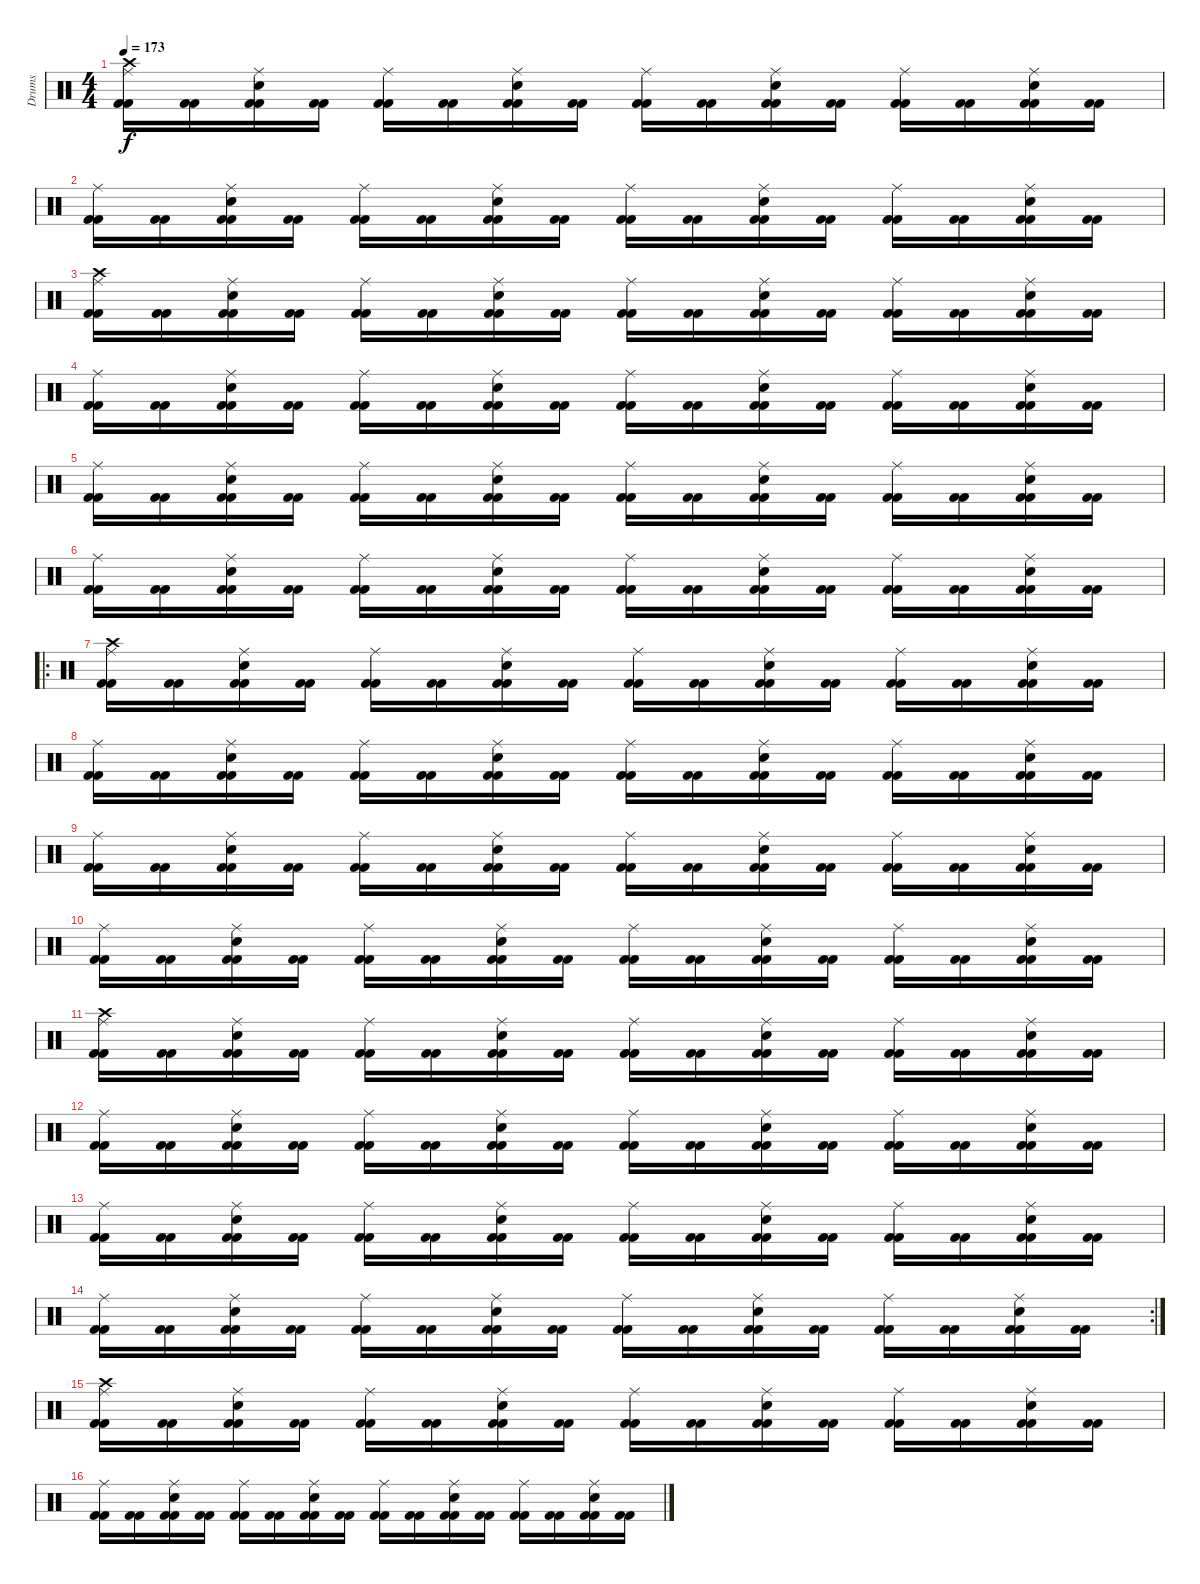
\track ("Drums" "Drums") {instrument percussion}
\staff {score}
\articulation defaults
\ts (4 4)
\tempo 173
\clef neutral
\ks c
("Kick (hit) 2" "Kick (hit) 2" "Ride (middle)" "Crash high (hit)").16{dy f} ("Kick (hit) 2" "Kick (hit) 2").16 ("Kick (hit) 2" "Kick (hit) 2" "Ride (middle)" "Electric Snare (hit)").16 ("Kick (hit) 2" "Kick (hit) 2").16 ("Kick (hit) 2" "Kick (hit) 2" "Ride (middle)").16 ("Kick (hit) 2" "Kick (hit) 2").16 ("Kick (hit) 2" "Kick (hit) 2" "Ride (middle)" "Electric Snare (hit)").16 ("Kick (hit) 2" "Kick (hit) 2").16 ("Kick (hit) 2" "Kick (hit) 2" "Ride (middle)").16 ("Kick (hit) 2" "Kick (hit) 2").16 ("Kick (hit) 2" "Kick (hit) 2" "Ride (middle)" "Electric Snare (hit)").16 ("Kick (hit) 2" "Kick (hit) 2").16 ("Kick (hit) 2" "Kick (hit) 2" "Ride (middle)").16 ("Kick (hit) 2" "Kick (hit) 2").16 ("Kick (hit) 2" "Kick (hit) 2" "Ride (middle)" "Electric Snare (hit)").16 ("Kick (hit) 2" "Kick (hit) 2").16 |
("Kick (hit) 2" "Kick (hit) 2" "Ride (middle)").16 ("Kick (hit) 2" "Kick (hit) 2").16 ("Kick (hit) 2" "Kick (hit) 2" "Ride (middle)" "Electric Snare (hit)").16 ("Kick (hit) 2" "Kick (hit) 2").16 ("Kick (hit) 2" "Kick (hit) 2" "Ride (middle)").16 ("Kick (hit) 2" "Kick (hit) 2").16 ("Kick (hit) 2" "Kick (hit) 2" "Ride (middle)" "Electric Snare (hit)").16 ("Kick (hit) 2" "Kick (hit) 2").16 ("Kick (hit) 2" "Kick (hit) 2" "Ride (middle)").16 ("Kick (hit) 2" "Kick (hit) 2").16 ("Kick (hit) 2" "Kick (hit) 2" "Ride (middle)" "Electric Snare (hit)").16 ("Kick (hit) 2" "Kick (hit) 2").16 ("Kick (hit) 2" "Kick (hit) 2" "Ride (middle)").16 ("Kick (hit) 2" "Kick (hit) 2").16 ("Kick (hit) 2" "Kick (hit) 2" "Ride (middle)" "Electric Snare (hit)").16 ("Kick (hit) 2" "Kick (hit) 2").16 |
("Kick (hit) 2" "Kick (hit) 2" "Ride (middle)" "Crash high (hit)").16 ("Kick (hit) 2" "Kick (hit) 2").16 ("Kick (hit) 2" "Kick (hit) 2" "Ride (middle)" "Electric Snare (hit)").16 ("Kick (hit) 2" "Kick (hit) 2").16 ("Kick (hit) 2" "Kick (hit) 2" "Ride (middle)").16 ("Kick (hit) 2" "Kick (hit) 2").16 ("Kick (hit) 2" "Kick (hit) 2" "Ride (middle)" "Electric Snare (hit)").16 ("Kick (hit) 2" "Kick (hit) 2").16 ("Kick (hit) 2" "Kick (hit) 2" "Ride (middle)").16 ("Kick (hit) 2" "Kick (hit) 2").16 ("Kick (hit) 2" "Kick (hit) 2" "Ride (middle)" "Electric Snare (hit)").16 ("Kick (hit) 2" "Kick (hit) 2").16 ("Kick (hit) 2" "Kick (hit) 2" "Ride (middle)").16 ("Kick (hit) 2" "Kick (hit) 2").16 ("Kick (hit) 2" "Kick (hit) 2" "Ride (middle)" "Electric Snare (hit)").16 ("Kick (hit) 2" "Kick (hit) 2").16 |
("Kick (hit) 2" "Kick (hit) 2" "Ride (middle)").16 ("Kick (hit) 2" "Kick (hit) 2").16 ("Kick (hit) 2" "Kick (hit) 2" "Ride (middle)" "Electric Snare (hit)").16 ("Kick (hit) 2" "Kick (hit) 2").16 ("Kick (hit) 2" "Kick (hit) 2" "Ride (middle)").16 ("Kick (hit) 2" "Kick (hit) 2").16 ("Kick (hit) 2" "Kick (hit) 2" "Ride (middle)" "Electric Snare (hit)").16 ("Kick (hit) 2" "Kick (hit) 2").16 ("Kick (hit) 2" "Kick (hit) 2" "Ride (middle)").16 ("Kick (hit) 2" "Kick (hit) 2").16 ("Kick (hit) 2" "Kick (hit) 2" "Ride (middle)" "Electric Snare (hit)").16 ("Kick (hit) 2" "Kick (hit) 2").16 ("Kick (hit) 2" "Kick (hit) 2" "Ride (middle)").16 ("Kick (hit) 2" "Kick (hit) 2").16 ("Kick (hit) 2" "Kick (hit) 2" "Ride (middle)" "Electric Snare (hit)").16 ("Kick (hit) 2" "Kick (hit) 2").16 |
("Kick (hit) 2" "Kick (hit) 2" "Ride (middle)").16 ("Kick (hit) 2" "Kick (hit) 2").16 ("Kick (hit) 2" "Kick (hit) 2" "Ride (middle)" "Electric Snare (hit)").16 ("Kick (hit) 2" "Kick (hit) 2").16 ("Kick (hit) 2" "Kick (hit) 2" "Ride (middle)").16 ("Kick (hit) 2" "Kick (hit) 2").16 ("Kick (hit) 2" "Kick (hit) 2" "Ride (middle)" "Electric Snare (hit)").16 ("Kick (hit) 2" "Kick (hit) 2").16 ("Kick (hit) 2" "Kick (hit) 2" "Ride (middle)").16 ("Kick (hit) 2" "Kick (hit) 2").16 ("Kick (hit) 2" "Kick (hit) 2" "Ride (middle)" "Electric Snare (hit)").16 ("Kick (hit) 2" "Kick (hit) 2").16 ("Kick (hit) 2" "Kick (hit) 2" "Ride (middle)").16 ("Kick (hit) 2" "Kick (hit) 2").16 ("Kick (hit) 2" "Kick (hit) 2" "Ride (middle)" "Electric Snare (hit)").16 ("Kick (hit) 2" "Kick (hit) 2").16 |
("Kick (hit) 2" "Kick (hit) 2" "Ride (middle)").16 ("Kick (hit) 2" "Kick (hit) 2").16 ("Kick (hit) 2" "Kick (hit) 2" "Ride (middle)" "Electric Snare (hit)").16 ("Kick (hit) 2" "Kick (hit) 2").16 ("Kick (hit) 2" "Kick (hit) 2" "Ride (middle)").16 ("Kick (hit) 2" "Kick (hit) 2").16 ("Kick (hit) 2" "Kick (hit) 2" "Ride (middle)" "Electric Snare (hit)").16 ("Kick (hit) 2" "Kick (hit) 2").16 ("Kick (hit) 2" "Kick (hit) 2" "Ride (middle)").16 ("Kick (hit) 2" "Kick (hit) 2").16 ("Kick (hit) 2" "Kick (hit) 2" "Ride (middle)" "Electric Snare (hit)").16 ("Kick (hit) 2" "Kick (hit) 2").16 ("Kick (hit) 2" "Kick (hit) 2" "Ride (middle)").16 ("Kick (hit) 2" "Kick (hit) 2").16 ("Kick (hit) 2" "Kick (hit) 2" "Ride (middle)" "Electric Snare (hit)").16 ("Kick (hit) 2" "Kick (hit) 2").16 |
\ro
("Kick (hit) 2" "Kick (hit) 2" "Ride (middle)" "Crash high (hit)").16 ("Kick (hit) 2" "Kick (hit) 2").16 ("Kick (hit) 2" "Kick (hit) 2" "Ride (middle)" "Electric Snare (hit)").16 ("Kick (hit) 2" "Kick (hit) 2").16 ("Kick (hit) 2" "Kick (hit) 2" "Ride (middle)").16 ("Kick (hit) 2" "Kick (hit) 2").16 ("Kick (hit) 2" "Kick (hit) 2" "Ride (middle)" "Electric Snare (hit)").16 ("Kick (hit) 2" "Kick (hit) 2").16 ("Kick (hit) 2" "Kick (hit) 2" "Ride (middle)").16 ("Kick (hit) 2" "Kick (hit) 2").16 ("Kick (hit) 2" "Kick (hit) 2" "Ride (middle)" "Electric Snare (hit)").16 ("Kick (hit) 2" "Kick (hit) 2").16 ("Kick (hit) 2" "Kick (hit) 2" "Ride (middle)").16 ("Kick (hit) 2" "Kick (hit) 2").16 ("Kick (hit) 2" "Kick (hit) 2" "Ride (middle)" "Electric Snare (hit)").16 ("Kick (hit) 2" "Kick (hit) 2").16 |
("Kick (hit) 2" "Kick (hit) 2" "Ride (middle)").16 ("Kick (hit) 2" "Kick (hit) 2").16 ("Kick (hit) 2" "Kick (hit) 2" "Ride (middle)" "Electric Snare (hit)").16 ("Kick (hit) 2" "Kick (hit) 2").16 ("Kick (hit) 2" "Kick (hit) 2" "Ride (middle)").16 ("Kick (hit) 2" "Kick (hit) 2").16 ("Kick (hit) 2" "Kick (hit) 2" "Ride (middle)" "Electric Snare (hit)").16 ("Kick (hit) 2" "Kick (hit) 2").16 ("Kick (hit) 2" "Kick (hit) 2" "Ride (middle)").16 ("Kick (hit) 2" "Kick (hit) 2").16 ("Kick (hit) 2" "Kick (hit) 2" "Ride (middle)" "Electric Snare (hit)").16 ("Kick (hit) 2" "Kick (hit) 2").16 ("Kick (hit) 2" "Kick (hit) 2" "Ride (middle)").16 ("Kick (hit) 2" "Kick (hit) 2").16 ("Kick (hit) 2" "Kick (hit) 2" "Ride (middle)" "Electric Snare (hit)").16 ("Kick (hit) 2" "Kick (hit) 2").16 |
("Kick (hit) 2" "Kick (hit) 2" "Ride (middle)").16 ("Kick (hit) 2" "Kick (hit) 2").16 ("Kick (hit) 2" "Kick (hit) 2" "Ride (middle)" "Electric Snare (hit)").16 ("Kick (hit) 2" "Kick (hit) 2").16 ("Kick (hit) 2" "Kick (hit) 2" "Ride (middle)").16 ("Kick (hit) 2" "Kick (hit) 2").16 ("Kick (hit) 2" "Kick (hit) 2" "Ride (middle)" "Electric Snare (hit)").16 ("Kick (hit) 2" "Kick (hit) 2").16 ("Kick (hit) 2" "Kick (hit) 2" "Ride (middle)").16 ("Kick (hit) 2" "Kick (hit) 2").16 ("Kick (hit) 2" "Kick (hit) 2" "Ride (middle)" "Electric Snare (hit)").16 ("Kick (hit) 2" "Kick (hit) 2").16 ("Kick (hit) 2" "Kick (hit) 2" "Ride (middle)").16 ("Kick (hit) 2" "Kick (hit) 2").16 ("Kick (hit) 2" "Kick (hit) 2" "Ride (middle)" "Electric Snare (hit)").16 ("Kick (hit) 2" "Kick (hit) 2").16 |
("Kick (hit) 2" "Kick (hit) 2" "Ride (middle)").16 ("Kick (hit) 2" "Kick (hit) 2").16 ("Kick (hit) 2" "Kick (hit) 2" "Ride (middle)" "Electric Snare (hit)").16 ("Kick (hit) 2" "Kick (hit) 2").16 ("Kick (hit) 2" "Kick (hit) 2" "Ride (middle)").16 ("Kick (hit) 2" "Kick (hit) 2").16 ("Kick (hit) 2" "Kick (hit) 2" "Ride (middle)" "Electric Snare (hit)").16 ("Kick (hit) 2" "Kick (hit) 2").16 ("Kick (hit) 2" "Kick (hit) 2" "Ride (middle)").16 ("Kick (hit) 2" "Kick (hit) 2").16 ("Kick (hit) 2" "Kick (hit) 2" "Ride (middle)" "Electric Snare (hit)").16 ("Kick (hit) 2" "Kick (hit) 2").16 ("Kick (hit) 2" "Kick (hit) 2" "Ride (middle)").16 ("Kick (hit) 2" "Kick (hit) 2").16 ("Kick (hit) 2" "Kick (hit) 2" "Ride (middle)" "Electric Snare (hit)").16 ("Kick (hit) 2" "Kick (hit) 2").16 |
("Kick (hit) 2" "Kick (hit) 2" "Ride (middle)" "Crash high (hit)").16 ("Kick (hit) 2" "Kick (hit) 2").16 ("Kick (hit) 2" "Kick (hit) 2" "Ride (middle)" "Electric Snare (hit)").16 ("Kick (hit) 2" "Kick (hit) 2").16 ("Kick (hit) 2" "Kick (hit) 2" "Ride (middle)").16 ("Kick (hit) 2" "Kick (hit) 2").16 ("Kick (hit) 2" "Kick (hit) 2" "Ride (middle)" "Electric Snare (hit)").16 ("Kick (hit) 2" "Kick (hit) 2").16 ("Kick (hit) 2" "Kick (hit) 2" "Ride (middle)").16 ("Kick (hit) 2" "Kick (hit) 2").16 ("Kick (hit) 2" "Kick (hit) 2" "Ride (middle)" "Electric Snare (hit)").16 ("Kick (hit) 2" "Kick (hit) 2").16 ("Kick (hit) 2" "Kick (hit) 2" "Ride (middle)").16 ("Kick (hit) 2" "Kick (hit) 2").16 ("Kick (hit) 2" "Kick (hit) 2" "Ride (middle)" "Electric Snare (hit)").16 ("Kick (hit) 2" "Kick (hit) 2").16 |
("Kick (hit) 2" "Kick (hit) 2" "Ride (middle)").16 ("Kick (hit) 2" "Kick (hit) 2").16 ("Kick (hit) 2" "Kick (hit) 2" "Ride (middle)" "Electric Snare (hit)").16 ("Kick (hit) 2" "Kick (hit) 2").16 ("Kick (hit) 2" "Kick (hit) 2" "Ride (middle)").16 ("Kick (hit) 2" "Kick (hit) 2").16 ("Kick (hit) 2" "Kick (hit) 2" "Ride (middle)" "Electric Snare (hit)").16 ("Kick (hit) 2" "Kick (hit) 2").16 ("Kick (hit) 2" "Kick (hit) 2" "Ride (middle)").16 ("Kick (hit) 2" "Kick (hit) 2").16 ("Kick (hit) 2" "Kick (hit) 2" "Ride (middle)" "Electric Snare (hit)").16 ("Kick (hit) 2" "Kick (hit) 2").16 ("Kick (hit) 2" "Kick (hit) 2" "Ride (middle)").16 ("Kick (hit) 2" "Kick (hit) 2").16 ("Kick (hit) 2" "Kick (hit) 2" "Ride (middle)" "Electric Snare (hit)").16 ("Kick (hit) 2" "Kick (hit) 2").16 |
("Kick (hit) 2" "Kick (hit) 2" "Ride (middle)").16 ("Kick (hit) 2" "Kick (hit) 2").16 ("Kick (hit) 2" "Kick (hit) 2" "Ride (middle)" "Electric Snare (hit)").16 ("Kick (hit) 2" "Kick (hit) 2").16 ("Kick (hit) 2" "Kick (hit) 2" "Ride (middle)").16 ("Kick (hit) 2" "Kick (hit) 2").16 ("Kick (hit) 2" "Kick (hit) 2" "Ride (middle)" "Electric Snare (hit)").16 ("Kick (hit) 2" "Kick (hit) 2").16 ("Kick (hit) 2" "Kick (hit) 2" "Ride (middle)").16 ("Kick (hit) 2" "Kick (hit) 2").16 ("Kick (hit) 2" "Kick (hit) 2" "Ride (middle)" "Electric Snare (hit)").16 ("Kick (hit) 2" "Kick (hit) 2").16 ("Kick (hit) 2" "Kick (hit) 2" "Ride (middle)").16 ("Kick (hit) 2" "Kick (hit) 2").16 ("Kick (hit) 2" "Kick (hit) 2" "Ride (middle)" "Electric Snare (hit)").16 ("Kick (hit) 2" "Kick (hit) 2").16 |
\rc 2
("Kick (hit) 2" "Kick (hit) 2" "Ride (middle)").16 ("Kick (hit) 2" "Kick (hit) 2").16 ("Kick (hit) 2" "Kick (hit) 2" "Ride (middle)" "Electric Snare (hit)").16 ("Kick (hit) 2" "Kick (hit) 2").16 ("Kick (hit) 2" "Kick (hit) 2" "Ride (middle)").16 ("Kick (hit) 2" "Kick (hit) 2").16 ("Kick (hit) 2" "Kick (hit) 2" "Ride (middle)" "Electric Snare (hit)").16 ("Kick (hit) 2" "Kick (hit) 2").16 ("Kick (hit) 2" "Kick (hit) 2" "Ride (middle)").16 ("Kick (hit) 2" "Kick (hit) 2").16 ("Kick (hit) 2" "Kick (hit) 2" "Ride (middle)" "Electric Snare (hit)").16 ("Kick (hit) 2" "Kick (hit) 2").16 ("Kick (hit) 2" "Kick (hit) 2" "Ride (middle)").16 ("Kick (hit) 2" "Kick (hit) 2").16 ("Kick (hit) 2" "Kick (hit) 2" "Ride (middle)" "Electric Snare (hit)").16 ("Kick (hit) 2" "Kick (hit) 2").16 |
("Kick (hit) 2" "Kick (hit) 2" "Ride (middle)" "Crash high (hit)").16 ("Kick (hit) 2" "Kick (hit) 2").16 ("Kick (hit) 2" "Kick (hit) 2" "Ride (middle)" "Electric Snare (hit)").16 ("Kick (hit) 2" "Kick (hit) 2").16 ("Kick (hit) 2" "Kick (hit) 2" "Ride (middle)").16 ("Kick (hit) 2" "Kick (hit) 2").16 ("Kick (hit) 2" "Kick (hit) 2" "Ride (middle)" "Electric Snare (hit)").16 ("Kick (hit) 2" "Kick (hit) 2").16 ("Kick (hit) 2" "Kick (hit) 2" "Ride (middle)").16 ("Kick (hit) 2" "Kick (hit) 2").16 ("Kick (hit) 2" "Kick (hit) 2" "Ride (middle)" "Electric Snare (hit)").16 ("Kick (hit) 2" "Kick (hit) 2").16 ("Kick (hit) 2" "Kick (hit) 2" "Ride (middle)").16 ("Kick (hit) 2" "Kick (hit) 2").16 ("Kick (hit) 2" "Kick (hit) 2" "Ride (middle)" "Electric Snare (hit)").16 ("Kick (hit) 2" "Kick (hit) 2").16 |
("Kick (hit) 2" "Kick (hit) 2" "Ride (middle)").16 ("Kick (hit) 2" "Kick (hit) 2").16 ("Kick (hit) 2" "Kick (hit) 2" "Ride (middle)" "Electric Snare (hit)").16 ("Kick (hit) 2" "Kick (hit) 2").16 ("Kick (hit) 2" "Kick (hit) 2" "Ride (middle)").16 ("Kick (hit) 2" "Kick (hit) 2").16 ("Kick (hit) 2" "Kick (hit) 2" "Ride (middle)" "Electric Snare (hit)").16 ("Kick (hit) 2" "Kick (hit) 2").16 ("Kick (hit) 2" "Kick (hit) 2" "Ride (middle)").16 ("Kick (hit) 2" "Kick (hit) 2").16 ("Kick (hit) 2" "Kick (hit) 2" "Ride (middle)" "Electric Snare (hit)").16 ("Kick (hit) 2" "Kick (hit) 2").16 ("Kick (hit) 2" "Kick (hit) 2" "Ride (middle)").16 ("Kick (hit) 2" "Kick (hit) 2").16 ("Kick (hit) 2" "Kick (hit) 2" "Ride (middle)" "Electric Snare (hit)").16 ("Kick (hit) 2" "Kick (hit) 2").16
